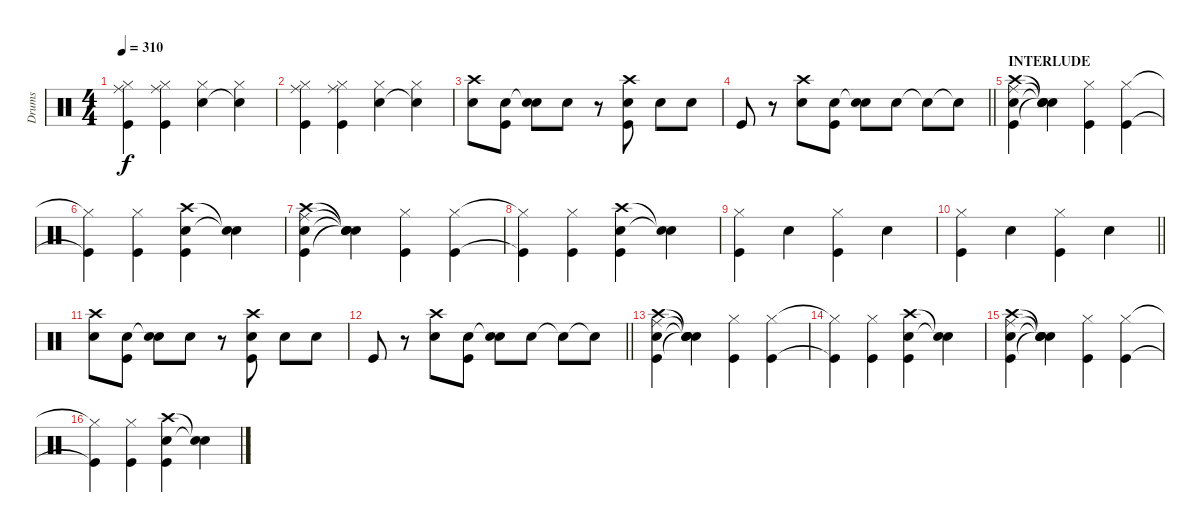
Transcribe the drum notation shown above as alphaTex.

\track ("Drums" "Drums") {instrument percussion}
\staff {score}
\articulation defaults
\ts (4 4)
\tempo 310
\clef neutral
\ks c
("Ride (middle)" "Hi-Hat (closed)" "Kick (hit)").4{dy f} ("Ride (middle)" "Hi-Hat (closed)" "Kick (hit)").4 ("Snare (hit) 2" "Hi-Hat (closed)").4 ("Snare (hit)"{t} "Hi-Hat (closed)").4 |
("Ride (middle)" "Hi-Hat (closed)" "Kick (hit)").4 ("Ride (middle)" "Hi-Hat (closed)" "Kick (hit)").4 ("Snare (hit) 2" "Hi-Hat (closed)").4 ("Snare (hit)"{t} "Hi-Hat (closed)").4 |
("Crash high (hit)" "Snare (hit) 2").8 ("Snare (hit) 2" "Kick (hit)").8 ("Snare (hit)"{t} "Snare (hit) 2").8 "Snare (hit) 2".8 r.8 ("Crash high (hit)" "Snare (hit) 2" "Kick (hit)").8 "Snare (hit) 2".8 "Snare (hit) 2".8 |
\barLineRight lightlight "Kick (hit)".8
r.8 ("Crash high (hit)" "Snare (hit) 2").8 ("Snare (hit) 2" "Kick (hit)").8 ("Snare (hit)"{t} "Snare (hit) 2").8 "Snare (hit) 2".8 "Snare (hit)"{t}.8 "Snare (hit)"{t}.8 |
\section ("" "INTERLUDE")
("Crash high (hit)" "Ride (middle)" "Snare (hit) 2" "Kick (hit)").4 ("Snare (hit)"{t} "Snare (hit)"{t} "Snare (hit)"{t} "Snare (hit)"{t}).4 ("Hi-Hat (closed)" "Kick (hit)").4 ("Hi-Hat (closed)" "Kick (hit)").4 |
("Hi-Hat (closed)"{t} "Kick (hit)"{t}).4 ("Hi-Hat (closed)" "Kick (hit)").4 ("Crash high (hit)" "Snare (hit) 2" "Kick (hit)").4 ("Snare (hit)"{t} "Snare (hit)"{t}).4 |
("Crash high (hit)" "Ride (middle)" "Snare (hit) 2" "Kick (hit)").4 ("Snare (hit)"{t} "Snare (hit)"{t} "Snare (hit)"{t} "Snare (hit)"{t}).4 ("Hi-Hat (closed)" "Kick (hit)").4 ("Hi-Hat (closed)" "Kick (hit)").4 |
("Hi-Hat (closed)"{t} "Kick (hit)"{t}).4 ("Hi-Hat (closed)" "Kick (hit)").4 ("Crash high (hit)" "Snare (hit) 2" "Kick (hit)").4 ("Snare (hit)"{t} "Snare (hit)"{t}).4 |
("Hi-Hat (closed)" "Kick (hit)").4 "Snare (hit) 2".4 ("Hi-Hat (closed)" "Kick (hit)").4 "Snare (hit) 2".4 |
\barLineRight lightlight
("Hi-Hat (closed)" "Kick (hit)").4 "Snare (hit) 2".4 ("Hi-Hat (closed)" "Kick (hit)").4 "Snare (hit) 2".4 |
\section ("" "")
("Crash high (hit)" "Snare (hit) 2").8 ("Snare (hit) 2" "Kick (hit)").8 ("Snare (hit)"{t} "Snare (hit) 2").8 "Snare (hit) 2".8 r.8 ("Crash high (hit)" "Snare (hit) 2" "Kick (hit)").8 "Snare (hit) 2".8 "Snare (hit) 2".8 |
\barLineRight lightlight "Kick (hit)".8
r.8 ("Crash high (hit)" "Snare (hit) 2").8 ("Snare (hit) 2" "Kick (hit)").8 ("Snare (hit)"{t} "Snare (hit) 2").8 "Snare (hit) 2".8 "Snare (hit)"{t}.8 "Snare (hit)"{t}.8 |
("Crash high (hit)" "Ride (middle)" "Snare (hit) 2" "Kick (hit)").4 ("Snare (hit)"{t} "Snare (hit)"{t} "Snare (hit)"{t} "Snare (hit)"{t}).4 ("Hi-Hat (closed)" "Kick (hit)").4 ("Hi-Hat (closed)" "Kick (hit)").4 |
("Hi-Hat (closed)"{t} "Kick (hit)"{t}).4 ("Hi-Hat (closed)" "Kick (hit)").4 ("Crash high (hit)" "Snare (hit) 2" "Kick (hit)").4 ("Snare (hit)"{t} "Snare (hit)"{t}).4 |
("Crash high (hit)" "Ride (middle)" "Snare (hit) 2" "Kick (hit)").4 ("Snare (hit)"{t} "Snare (hit)"{t} "Snare (hit)"{t} "Snare (hit)"{t}).4 ("Hi-Hat (closed)" "Kick (hit)").4 ("Hi-Hat (closed)" "Kick (hit)").4 |
("Hi-Hat (closed)"{t} "Kick (hit)"{t}).4 ("Hi-Hat (closed)" "Kick (hit)").4 ("Crash high (hit)" "Snare (hit) 2" "Kick (hit)").4 ("Snare (hit)"{t} "Snare (hit)"{t}).4
